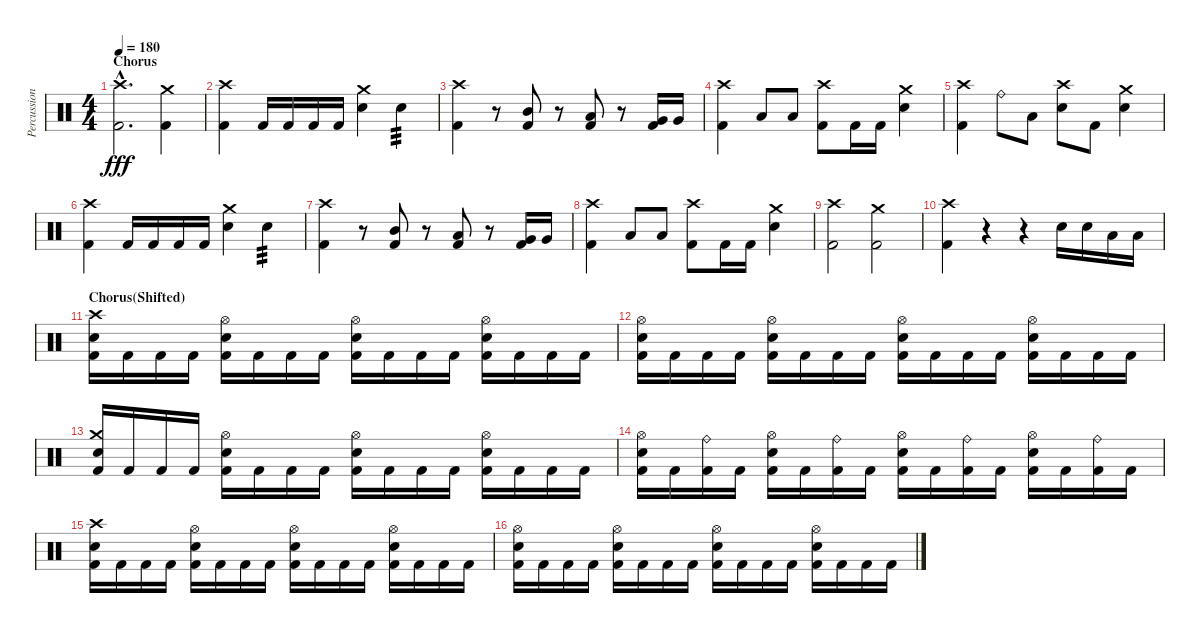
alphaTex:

\track ("Percussion" "Percussion") {instrument percussion}
\staff {score}
\articulation defaults
\ts (4 4)
\section ("" "Chorus")
\tempo 180
\clef neutral
\ks c
("Crash high (hit)"{hac} "Kick (hit) 2"{hac}).2{d dy fff} ("Crash medium (hit)" "Kick (hit) 2").4 |
("Crash high (hit)" "Kick (hit) 2").4 "Kick (hit) 2".16 "Kick (hit) 2".16 "Kick (hit) 2".16 "Kick (hit) 2".16 ("Crash medium (hit)" "Snare (hit) 2").4 "Snare (hit) 2".4{tp 3} |
("Crash high (hit)" "Kick (hit) 2").4 r.8 ("Mid Tom (hit)" "Kick (hit) 2").8 r.8 ("Low Tom (hit)" "Kick (hit) 2").8 r.8 ("Very Low Tom (hit)" "Kick (hit) 2").16 "Very Low Tom (hit)".16 |
("Crash high (hit)" "Kick (hit) 2").4 "Low Floor Tom (hit)".8 "Low Tom (hit)".8 ("Crash high (hit)" "Kick (hit) 2").8 "Kick (hit) 2".16 "Kick (hit) 2".16 ("Crash medium (hit)" "Snare (hit) 2").4 |
("Crash high (hit)" "Kick (hit) 2").4 "Ride (bell)".8 "Low Tom (hit)".8 ("Crash high (hit)" "Snare (hit) 2").8 "Kick (hit) 2".8 ("Crash medium (hit)" "Snare (hit) 2").4 |
("Crash high (hit)" "Kick (hit) 2").4 "Kick (hit) 2".16 "Kick (hit) 2".16 "Kick (hit) 2".16 "Kick (hit) 2".16 ("Crash medium (hit)" "Snare (hit) 2").4 "Snare (hit) 2".4{tp 3} |
("Crash high (hit)" "Kick (hit) 2").4 r.8 ("Mid Tom (hit)" "Kick (hit) 2").8 r.8 ("Low Tom (hit)" "Kick (hit) 2").8 r.8 ("Very Low Tom (hit)" "Kick (hit) 2").16 "Very Low Tom (hit)".16 |
("Crash high (hit)" "Kick (hit) 2").4 "Low Floor Tom (hit)".8 "Low Tom (hit)".8 ("Crash high (hit)" "Kick (hit) 2").8 "Kick (hit) 2".16 "Kick (hit) 2".16 ("Crash medium (hit)" "Snare (hit) 2").4 |
("Crash high (hit)" "Kick (hit) 2").2 ("Crash medium (hit)" "Kick (hit) 2").2 |
("Crash high (hit)" "Kick (hit) 2").4 r.4 r.4 "Snare (hit) 2".16 "Snare (hit) 2".16 "Low Tom (hit)".16 "Low Tom (hit)".16 |
\section ("" "Chorus(Shifted)")
("Crash high (hit)" "Snare (hit) 2" "Kick (hit) 2").16 "Kick (hit) 2".16 "Kick (hit) 2".16 "Kick (hit) 2".16 ("Hi-Hat (open)" "Snare (hit) 2" "Kick (hit) 2").16 "Kick (hit) 2".16 "Kick (hit) 2".16 "Kick (hit) 2".16 ("Hi-Hat (open)" "Snare (hit) 2" "Kick (hit) 2").16 "Kick (hit) 2".16 "Kick (hit) 2".16 "Kick (hit) 2".16 ("Hi-Hat (open)" "Snare (hit) 2" "Kick (hit) 2").16 "Kick (hit) 2".16 "Kick (hit) 2".16 "Kick (hit) 2".16 |
("Hi-Hat (open)" "Snare (hit) 2" "Kick (hit) 2").16 "Kick (hit) 2".16 "Kick (hit) 2".16 "Kick (hit) 2".16 ("Hi-Hat (open)" "Snare (hit) 2" "Kick (hit) 2").16 "Kick (hit) 2".16 "Kick (hit) 2".16 "Kick (hit) 2".16 ("Hi-Hat (open)" "Snare (hit) 2" "Kick (hit) 2").16 "Kick (hit) 2".16 "Kick (hit) 2".16 "Kick (hit) 2".16 ("Hi-Hat (open)" "Snare (hit) 2" "Kick (hit) 2").16 "Kick (hit) 2".16 "Kick (hit) 2".16 "Kick (hit) 2".16 |
("Crash medium (hit)" "Snare (hit) 2" "Kick (hit) 2").16 "Kick (hit) 2".16 "Kick (hit) 2".16 "Kick (hit) 2".16 ("Hi-Hat (open)" "Snare (hit) 2" "Kick (hit) 2").16 "Kick (hit) 2".16 "Kick (hit) 2".16 "Kick (hit) 2".16 ("Hi-Hat (open)" "Snare (hit) 2" "Kick (hit) 2").16 "Kick (hit) 2".16 "Kick (hit) 2".16 "Kick (hit) 2".16 ("Hi-Hat (open)" "Snare (hit) 2" "Kick (hit) 2").16 "Kick (hit) 2".16 "Kick (hit) 2".16 "Kick (hit) 2".16 |
("Hi-Hat (open)" "Snare (hit) 2" "Kick (hit) 2").16 "Kick (hit) 2".16 ("Ride (bell)" "Kick (hit) 2").16 "Kick (hit) 2".16 ("Hi-Hat (open)" "Snare (hit) 2" "Kick (hit) 2").16 "Kick (hit) 2".16 ("Ride (bell)" "Kick (hit) 2").16 "Kick (hit) 2".16 ("Hi-Hat (open)" "Snare (hit) 2" "Kick (hit) 2").16 "Kick (hit) 2".16 ("Ride (bell)" "Kick (hit) 2").16 "Kick (hit) 2".16 ("Hi-Hat (open)" "Snare (hit) 2" "Kick (hit) 2").16 "Kick (hit) 2".16 ("Ride (bell)" "Kick (hit) 2").16 "Kick (hit) 2".16 |
("Crash high (hit)" "Snare (hit) 2" "Kick (hit) 2").16 "Kick (hit) 2".16 "Kick (hit) 2".16 "Kick (hit) 2".16 ("Hi-Hat (open)" "Snare (hit) 2" "Kick (hit) 2").16 "Kick (hit) 2".16 "Kick (hit) 2".16 "Kick (hit) 2".16 ("Hi-Hat (open)" "Snare (hit) 2" "Kick (hit) 2").16 "Kick (hit) 2".16 "Kick (hit) 2".16 "Kick (hit) 2".16 ("Hi-Hat (open)" "Snare (hit) 2" "Kick (hit) 2").16 "Kick (hit) 2".16 "Kick (hit) 2".16 "Kick (hit) 2".16 |
("Hi-Hat (open)" "Snare (hit) 2" "Kick (hit) 2").16 "Kick (hit) 2".16 "Kick (hit) 2".16 "Kick (hit) 2".16 ("Hi-Hat (open)" "Snare (hit) 2" "Kick (hit) 2").16 "Kick (hit) 2".16 "Kick (hit) 2".16 "Kick (hit) 2".16 ("Hi-Hat (open)" "Snare (hit) 2" "Kick (hit) 2").16 "Kick (hit) 2".16 "Kick (hit) 2".16 "Kick (hit) 2".16 ("Hi-Hat (open)" "Snare (hit) 2" "Kick (hit) 2").16 "Kick (hit) 2".16 "Kick (hit) 2".16 "Kick (hit) 2".16
